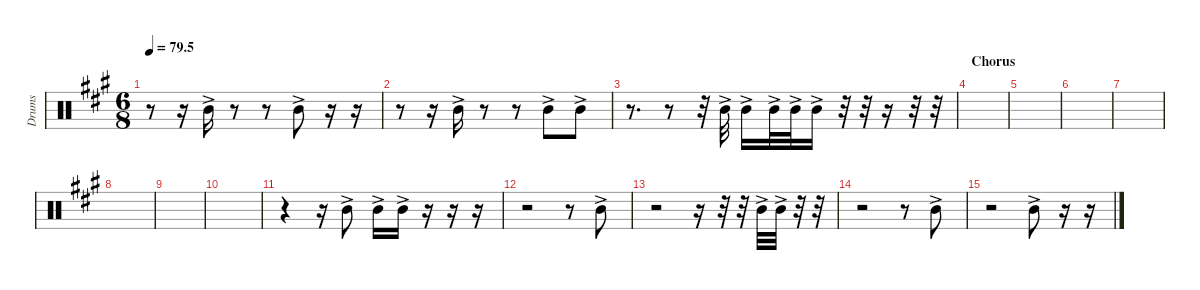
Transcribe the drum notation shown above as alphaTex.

\defaultSystemsLayout 4
\hideDynamics
\bracketExtendMode nobrackets
\otherSystemsTrackNameOrientation horizontal
\track ("Tom 02" "Drums") {instrument percussion}
\staff {score}
\articulation defaults
\ts (6 8)
\tempo
79.5
\accidentals auto
\clef neutral
\ottava regular
\simile none
\scale
0.333333
\ks a
r.8{dy f} r.16 "Mid Tom (hit)"{ac acc forcenatural}.16 r.8 r.8 "Mid Tom (hit)"{ac acc forcenatural}.8 r.16 r.16 |
\scale
0.333333 r.8 r.16 "Mid Tom (hit)"{ac acc forcenatural}.16 r.8 r.8 "Mid Tom (hit)"{ac acc forcenatural}.8 "Mid Tom (hit)"{ac acc forcenatural}.8 |
\scale
0.333333 r.8{d} r.8 r.32 "Mid Tom (hit)"{ac acc forcenatural}.32 "Mid Tom (hit)"{ac acc forcenatural}.16 "Mid Tom (hit)"{ac acc forcenatural}.32 "Mid Tom (hit)"{ac acc forcenatural}.32 "Mid Tom (hit)"{ac acc forcenatural}.16 r.32 r.32 r.16 r.32 r.32 |
\section ("" "Chorus")
\scale
0.333333 |
\scale
0.333333 |
\scale
0.333333 |
\scale
0.333333 |
\scale
0.333333 |
\scale
0.333333 |
\scale
0.333333 |
\scale
0.333333 r.4 r.16 "Mid Tom (hit)"{ac acc forcenatural}.8 "Mid Tom (hit)"{ac acc forcenatural}.16 "Mid Tom (hit)"{ac acc forcenatural}.16 r.16 r.16 r.16 |
\scale
0.333333 r.2 r.8 "Mid Tom (hit)"{ac acc forcenatural}.8 |
\scale
0.333333 r.2 r.16 r.32 r.32 "Mid Tom (hit)"{ac acc forcenatural}.32 "Mid Tom (hit)"{ac acc forcenatural}.32 r.32 r.32 |
\scale
0.333333 r.2 r.8 "Mid Tom (hit)"{ac acc forcenatural}.8 |
\scale
0.333333 r.2 "Mid Tom (hit)"{ac acc forcenatural}.8 r.16 r.16 |
\scale
0.333333
